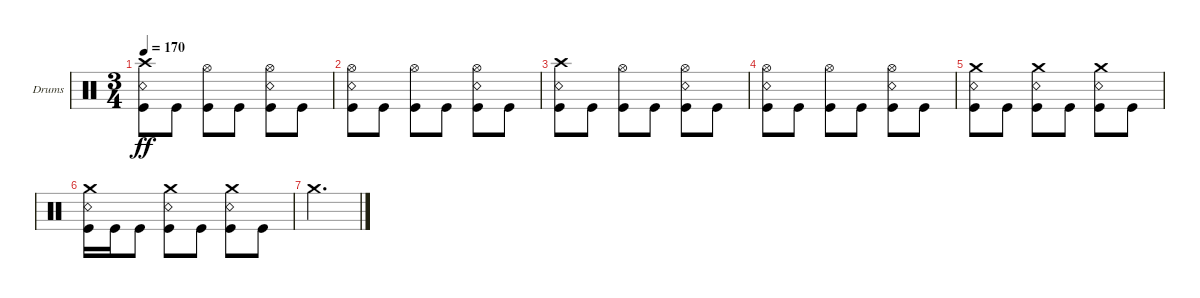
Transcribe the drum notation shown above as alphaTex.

\bracketExtendMode groupsimilarinstruments
\firstSystemTrackNameOrientation horizontal
\otherSystemsTrackNameOrientation horizontal
\track ("Kaleb - Drums" "Drums") {instrument percussion}
\staff {score}
\articulation defaults
\ts (3 4)
\tempo 170
\clef neutral
\ks c
("Kick (hit)" "Snare (rim shot)" "Crash high (hit)").8{dy ff} "Kick (hit)".8 ("Kick (hit)" "Hi-Hat (open)").8 "Kick (hit)".8 ("Kick (hit)" "Snare (rim shot)" "Hi-Hat (open)").8 "Kick (hit)".8 |
("Kick (hit)" "Snare (rim shot)" "Hi-Hat (open)").8 "Kick (hit)".8 ("Kick (hit)" "Hi-Hat (open)").8 "Kick (hit)".8 ("Kick (hit)" "Snare (rim shot)" "Hi-Hat (open)").8 "Kick (hit)".8 |
("Kick (hit)" "Snare (rim shot)" "Crash high (hit)").8 "Kick (hit)".8 ("Kick (hit)" "Hi-Hat (open)").8 "Kick (hit)".8 ("Kick (hit)" "Snare (rim shot)" "Hi-Hat (open)").8 "Kick (hit)".8 |
("Kick (hit)" "Snare (rim shot)" "Hi-Hat (open)").8 "Kick (hit)".8 ("Kick (hit)" "Hi-Hat (open)").8 "Kick (hit)".8 ("Kick (hit)" "Snare (rim shot)" "Hi-Hat (open)").8 "Kick (hit)".8 |
("Kick (hit)" "Snare (rim shot)" "Crash medium (hit)").8 "Kick (hit)".8 ("Kick (hit)" "Snare (rim shot)" "Crash medium (hit)").8 "Kick (hit)".8 ("Kick (hit)" "Snare (rim shot)" "Crash medium (hit)").8 "Kick (hit)".8 |
("Kick (hit)" "Snare (rim shot)" "Crash medium (hit)").16 "Kick (hit)".16 "Kick (hit)".8 ("Kick (hit)" "Snare (rim shot)" "Crash medium (hit)").8 "Kick (hit)".8 ("Kick (hit)" "Snare (rim shot)" "Crash medium (hit)").8 "Kick (hit)".8 |
"Crash medium (hit)".2{d}
